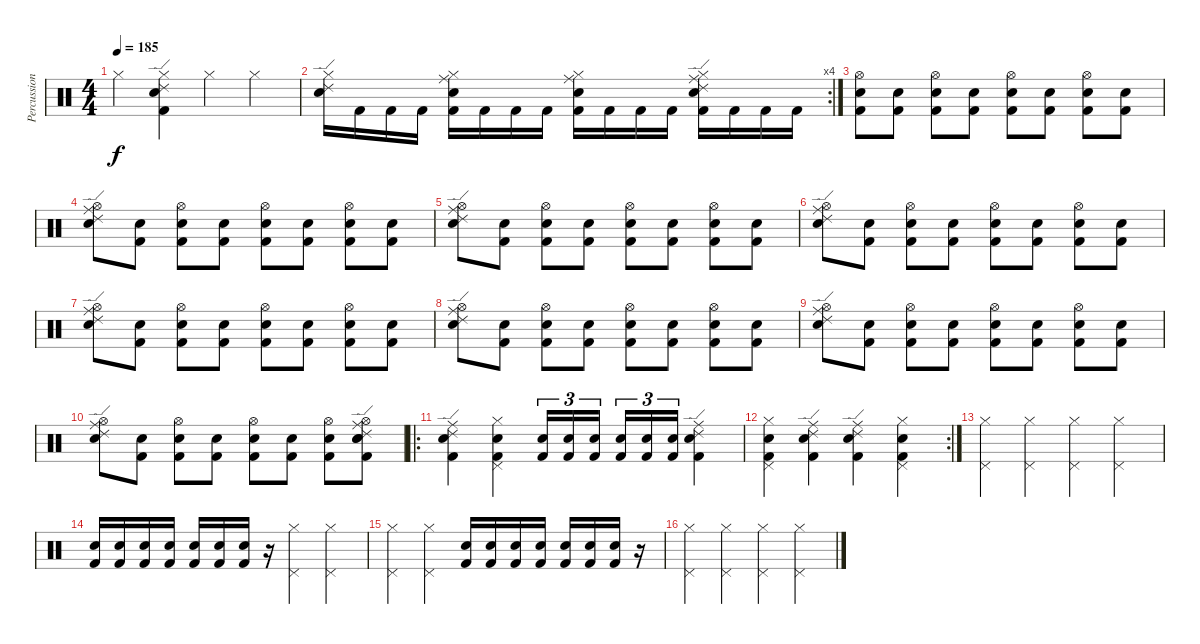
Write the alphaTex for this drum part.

\track ("Percussions" "Percussion") {instrument percussion}
\staff {score}
\articulation defaults
\ts (4 4)
\tempo 185
\clef neutral
\ks c "Hi-Hat (closed)".4{dy f}
("Hi-Hat (closed)" "Ride (edge) 2" "Electric Snare (hit)" "Kick (hit) 2").4 "Hi-Hat (closed)".4 "Hi-Hat (closed)".4 |
\rc 4
("Hi-Hat (closed)" "Ride (edge) 2" "Electric Snare (hit)").16 "Kick (hit) 2".16 "Kick (hit) 2".16 "Kick (hit) 2".16 ("Hi-Hat (closed)" "Ride (middle)" "Snare (hit) 2" "Kick (hit) 2").16 "Kick (hit) 2".16 "Kick (hit) 2".16 "Kick (hit) 2".16 ("Hi-Hat (closed)" "Ride (middle)" "Snare (hit) 2" "Kick (hit) 2").16 "Kick (hit) 2".16 "Kick (hit) 2".16 "Kick (hit) 2".16 ("Hi-Hat (closed)" "Ride (edge) 2" "Ride (middle)" "Electric Snare (hit)" "Kick (hit) 2").16 "Kick (hit) 2".16 "Kick (hit) 2".16 "Kick (hit) 2".16 |
("Hi-Hat (open)" "Snare (hit) 2" "Kick (hit) 2").8 ("Snare (hit) 2" "Kick (hit) 2").8 ("Hi-Hat (open)" "Snare (hit) 2" "Kick (hit) 2").8 ("Snare (hit) 2" "Kick (hit) 2").8 ("Hi-Hat (open)" "Snare (hit) 2" "Kick (hit) 2").8 ("Snare (hit) 2" "Kick (hit) 2").8 ("Hi-Hat (open)" "Snare (hit) 2" "Kick (hit) 2").8 ("Snare (hit) 2" "Kick (hit) 2").8 |
("Hi-Hat (open)" "Ride (middle)" "Ride (edge) 2" "Snare (hit) 2").8 ("Snare (hit) 2" "Kick (hit) 2").8 ("Hi-Hat (open)" "Snare (hit) 2" "Kick (hit) 2").8 ("Snare (hit) 2" "Kick (hit) 2").8 ("Hi-Hat (open)" "Snare (hit) 2" "Kick (hit) 2").8 ("Snare (hit) 2" "Kick (hit) 2").8 ("Hi-Hat (open)" "Snare (hit) 2" "Kick (hit) 2").8 ("Snare (hit) 2" "Kick (hit) 2").8 |
("Hi-Hat (open)" "Ride (middle)" "Ride (edge) 2" "Snare (hit) 2").8 ("Snare (hit) 2" "Kick (hit) 2").8 ("Hi-Hat (open)" "Snare (hit) 2" "Kick (hit) 2").8 ("Snare (hit) 2" "Kick (hit) 2").8 ("Hi-Hat (open)" "Snare (hit) 2" "Kick (hit) 2").8 ("Snare (hit) 2" "Kick (hit) 2").8 ("Hi-Hat (open)" "Snare (hit) 2" "Kick (hit) 2").8 ("Snare (hit) 2" "Kick (hit) 2").8 |
("Hi-Hat (open)" "Ride (middle)" "Ride (edge) 2" "Snare (hit) 2").8 ("Snare (hit) 2" "Kick (hit) 2").8 ("Hi-Hat (open)" "Snare (hit) 2" "Kick (hit) 2").8 ("Snare (hit) 2" "Kick (hit) 2").8 ("Hi-Hat (open)" "Snare (hit) 2" "Kick (hit) 2").8 ("Snare (hit) 2" "Kick (hit) 2").8 ("Hi-Hat (open)" "Snare (hit) 2" "Kick (hit) 2").8 ("Snare (hit) 2" "Kick (hit) 2").8 |
("Hi-Hat (open)" "Ride (middle)" "Ride (edge) 2" "Snare (hit) 2").8 ("Snare (hit) 2" "Kick (hit) 2").8 ("Hi-Hat (open)" "Snare (hit) 2" "Kick (hit) 2").8 ("Snare (hit) 2" "Kick (hit) 2").8 ("Hi-Hat (open)" "Snare (hit) 2" "Kick (hit) 2").8 ("Snare (hit) 2" "Kick (hit) 2").8 ("Hi-Hat (open)" "Snare (hit) 2" "Kick (hit) 2").8 ("Snare (hit) 2" "Kick (hit) 2").8 |
("Hi-Hat (open)" "Ride (middle)" "Ride (edge) 2" "Snare (hit) 2").8 ("Snare (hit) 2" "Kick (hit) 2").8 ("Hi-Hat (open)" "Snare (hit) 2" "Kick (hit) 2").8 ("Snare (hit) 2" "Kick (hit) 2").8 ("Hi-Hat (open)" "Snare (hit) 2" "Kick (hit) 2").8 ("Snare (hit) 2" "Kick (hit) 2").8 ("Hi-Hat (open)" "Snare (hit) 2" "Kick (hit) 2").8 ("Snare (hit) 2" "Kick (hit) 2").8 |
("Hi-Hat (open)" "Ride (middle)" "Ride (edge) 2" "Snare (hit) 2").8 ("Snare (hit) 2" "Kick (hit) 2").8 ("Hi-Hat (open)" "Snare (hit) 2" "Kick (hit) 2").8 ("Snare (hit) 2" "Kick (hit) 2").8 ("Hi-Hat (open)" "Snare (hit) 2" "Kick (hit) 2").8 ("Snare (hit) 2" "Kick (hit) 2").8 ("Hi-Hat (open)" "Snare (hit) 2" "Kick (hit) 2").8 ("Snare (hit) 2" "Kick (hit) 2").8 |
("Hi-Hat (open)" "Ride (middle)" "Ride (edge) 2" "Snare (hit) 2").8 ("Snare (hit) 2" "Kick (hit) 2").8 ("Hi-Hat (open)" "Snare (hit) 2" "Kick (hit) 2").8 ("Snare (hit) 2" "Kick (hit) 2").8 ("Hi-Hat (open)" "Snare (hit) 2" "Kick (hit) 2").8 ("Snare (hit) 2" "Kick (hit) 2").8 ("Hi-Hat (open)" "Snare (hit) 2" "Kick (hit) 2").8 ("Hi-Hat (open)" "Ride (middle)" "Ride (edge) 2" "Snare (hit) 2" "Electric Snare (hit)" "Kick (hit) 2").8 |
\ro
("Ride (edge) 2" "Ride (middle)" "Electric Snare (hit)" "Kick (hit) 2").4 ("Hi-Hat (closed)" "Pedal Hi-Hat (hit)" "Electric Snare (hit)" "Kick (hit) 2").4 ("Snare (hit) 2" "Kick (hit) 2").16{tu (3 2)} ("Snare (hit) 2" "Kick (hit) 2").16{tu (3 2)} ("Snare (hit) 2" "Kick (hit) 2").16{tu (3 2)} ("Snare (hit) 2" "Kick (hit) 2").16{tu (3 2)} ("Snare (hit) 2" "Kick (hit) 2").16{tu (3 2)} ("Snare (hit) 2" "Kick (hit) 2").16{tu (3 2)} ("Ride (edge) 2" "Ride (middle)" "Electric Snare (hit)" "Kick (hit) 2").4 |
\rc 2
("Hi-Hat (closed)" "Pedal Hi-Hat (hit)" "Electric Snare (hit)" "Kick (hit) 2").4 ("Ride (edge) 2" "Ride (middle)" "Electric Snare (hit)" "Kick (hit) 2").4 ("Ride (edge) 2" "Ride (middle)" "Electric Snare (hit)" "Kick (hit) 2").4 ("Hi-Hat (closed)" "Pedal Hi-Hat (hit)" "Electric Snare (hit)" "Kick (hit) 2").4 |
("Hi-Hat (closed)" "Pedal Hi-Hat (hit)").4 ("Hi-Hat (closed)" "Pedal Hi-Hat (hit)").4 ("Hi-Hat (closed)" "Pedal Hi-Hat (hit)").4 ("Hi-Hat (closed)" "Pedal Hi-Hat (hit)").4 |
("Electric Snare (hit)" "Kick (hit) 2").16 ("Electric Snare (hit)" "Kick (hit) 2").16 ("Electric Snare (hit)" "Kick (hit) 2").16 ("Electric Snare (hit)" "Kick (hit) 2").16 ("Electric Snare (hit)" "Kick (hit) 2").16 ("Electric Snare (hit)" "Kick (hit) 2").16 ("Electric Snare (hit)" "Kick (hit) 2").16 r.16 ("Hi-Hat (closed)" "Pedal Hi-Hat (hit)").4 ("Hi-Hat (closed)" "Pedal Hi-Hat (hit)").4 |
("Hi-Hat (closed)" "Pedal Hi-Hat (hit)").4 ("Hi-Hat (closed)" "Pedal Hi-Hat (hit)").4 ("Electric Snare (hit)" "Kick (hit) 2").16 ("Electric Snare (hit)" "Kick (hit) 2").16 ("Electric Snare (hit)" "Kick (hit) 2").16 ("Electric Snare (hit)" "Kick (hit) 2").16 ("Electric Snare (hit)" "Kick (hit) 2").16 ("Electric Snare (hit)" "Kick (hit) 2").16 ("Electric Snare (hit)" "Kick (hit) 2").16 r.16 |
("Hi-Hat (closed)" "Pedal Hi-Hat (hit)").4 ("Hi-Hat (closed)" "Pedal Hi-Hat (hit)").4 ("Hi-Hat (closed)" "Pedal Hi-Hat (hit)").4 ("Hi-Hat (closed)" "Pedal Hi-Hat (hit)").4
